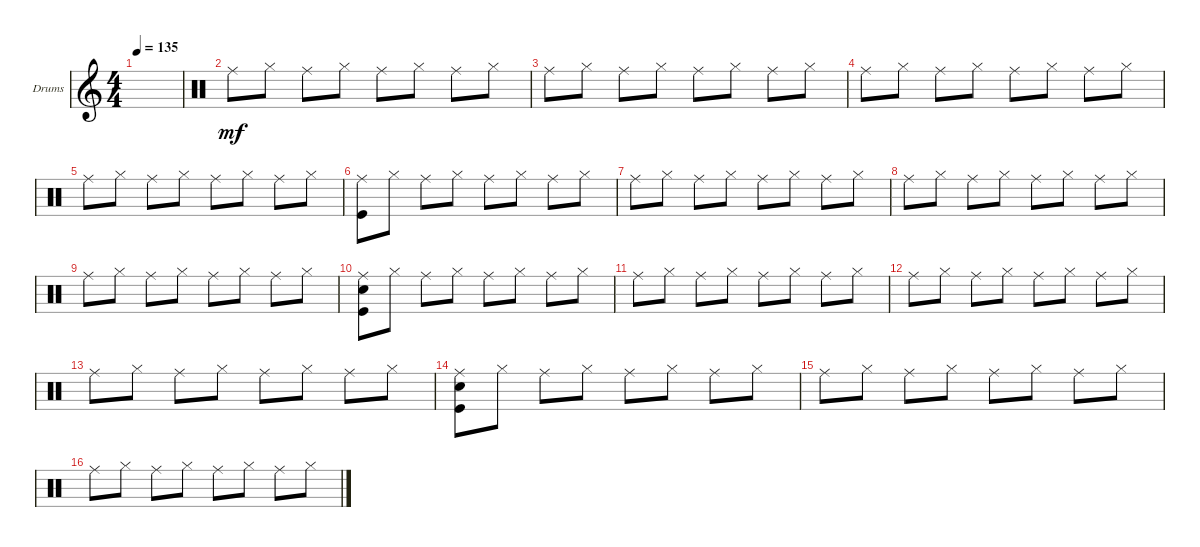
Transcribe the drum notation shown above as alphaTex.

\defaultSystemsLayout 4
\bracketExtendMode groupsimilarinstruments
\firstSystemTrackNameOrientation horizontal
\otherSystemsTrackNameOrientation horizontal
\track ("Drums" "Drums") {instrument percussion}
\staff {score}
\articulation defaults
\ts (4 4)
\tempo 135
\clef g2
\ks c
|
\clef neutral "Ride (middle)".8{dy mf} "Hi-Hat (closed)".8 "Ride (middle)".8 "Hi-Hat (closed)".8 "Ride (middle)".8 "Hi-Hat (closed)".8 "Ride (middle)".8 "Hi-Hat (closed)".8
|
"Ride (middle)".8 "Hi-Hat (closed)".8 "Ride (middle)".8 "Hi-Hat (closed)".8 "Ride (middle)".8 "Hi-Hat (closed)".8 "Ride (middle)".8 "Hi-Hat (closed)".8 |
"Ride (middle)".8 "Hi-Hat (closed)".8 "Ride (middle)".8 "Hi-Hat (closed)".8 "Ride (middle)".8 "Hi-Hat (closed)".8 "Ride (middle)".8 "Hi-Hat (closed)".8 |
"Ride (middle)".8 "Hi-Hat (closed)".8 "Ride (middle)".8 "Hi-Hat (closed)".8 "Ride (middle)".8 "Hi-Hat (closed)".8 "Ride (middle)".8 "Hi-Hat (closed)".8 |
("Ride (middle)" "Kick (hit)").8 "Hi-Hat (closed)".8 "Ride (middle)".8 "Hi-Hat (closed)".8 "Ride (middle)".8 "Hi-Hat (closed)".8 "Ride (middle)".8 "Hi-Hat (closed)".8 |
"Ride (middle)".8 "Hi-Hat (closed)".8 "Ride (middle)".8 "Hi-Hat (closed)".8 "Ride (middle)".8 "Hi-Hat (closed)".8 "Ride (middle)".8 "Hi-Hat (closed)".8 |
"Ride (middle)".8 "Hi-Hat (closed)".8 "Ride (middle)".8 "Hi-Hat (closed)".8 "Ride (middle)".8 "Hi-Hat (closed)".8 "Ride (middle)".8 "Hi-Hat (closed)".8 |
"Ride (middle)".8 "Hi-Hat (closed)".8 "Ride (middle)".8 "Hi-Hat (closed)".8 "Ride (middle)".8 "Hi-Hat (closed)".8 "Ride (middle)".8 "Hi-Hat (closed)".8 |
("Ride (middle)" "Kick (hit)" "Snare (hit) 2").8 "Hi-Hat (closed)".8 "Ride (middle)".8 "Hi-Hat (closed)".8 "Ride (middle)".8 "Hi-Hat (closed)".8 "Ride (middle)".8 "Hi-Hat (closed)".8 |
"Ride (middle)".8 "Hi-Hat (closed)".8 "Ride (middle)".8 "Hi-Hat (closed)".8 "Ride (middle)".8 "Hi-Hat (closed)".8 "Ride (middle)".8 "Hi-Hat (closed)".8 |
"Ride (middle)".8 "Hi-Hat (closed)".8 "Ride (middle)".8 "Hi-Hat (closed)".8 "Ride (middle)".8 "Hi-Hat (closed)".8 "Ride (middle)".8 "Hi-Hat (closed)".8 |
"Ride (middle)".8 "Hi-Hat (closed)".8 "Ride (middle)".8 "Hi-Hat (closed)".8 "Ride (middle)".8 "Hi-Hat (closed)".8 "Ride (middle)".8 "Hi-Hat (closed)".8 |
("Ride (middle)" "Kick (hit)" "Snare (hit) 2").8 "Hi-Hat (closed)".8 "Ride (middle)".8 "Hi-Hat (closed)".8 "Ride (middle)".8 "Hi-Hat (closed)".8 "Ride (middle)".8 "Hi-Hat (closed)".8 |
"Ride (middle)".8 "Hi-Hat (closed)".8 "Ride (middle)".8 "Hi-Hat (closed)".8 "Ride (middle)".8 "Hi-Hat (closed)".8 "Ride (middle)".8 "Hi-Hat (closed)".8 |
"Ride (middle)".8 "Hi-Hat (closed)".8 "Ride (middle)".8 "Hi-Hat (closed)".8 "Ride (middle)".8 "Hi-Hat (closed)".8 "Ride (middle)".8 "Hi-Hat (closed)".8
